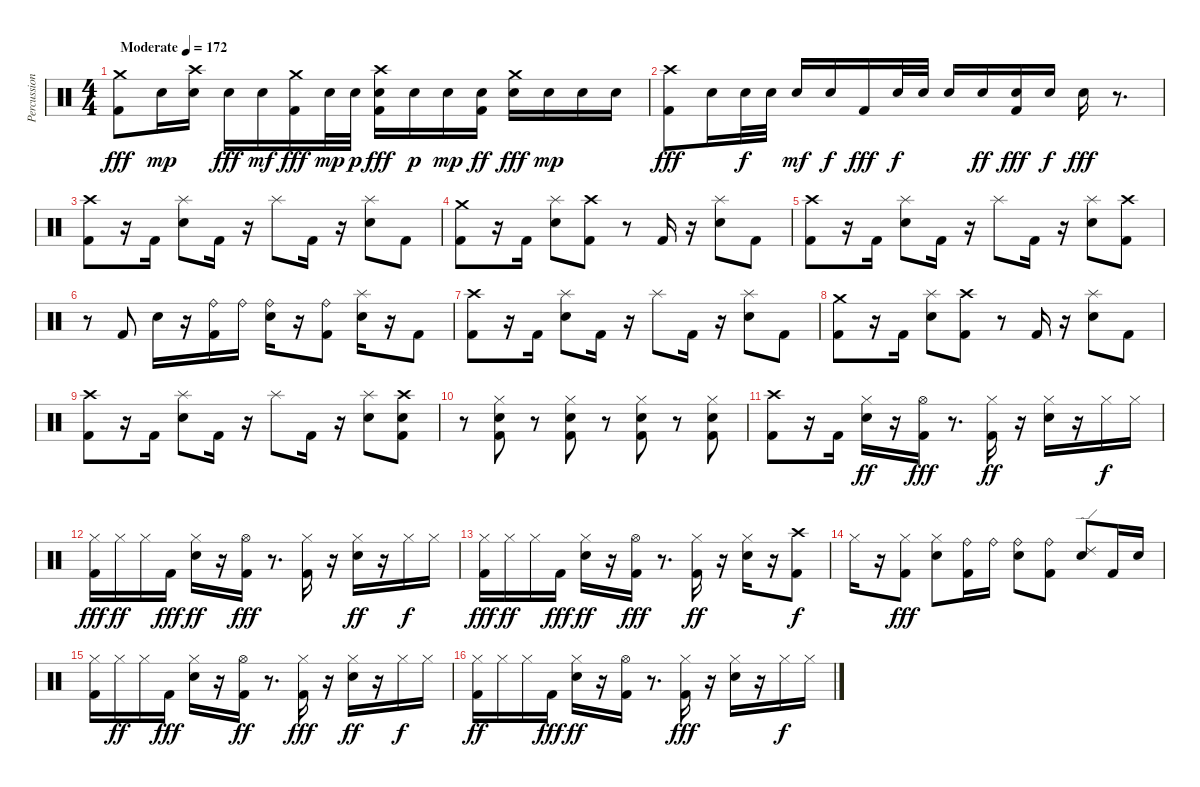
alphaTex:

\track ("Percussion" "Percussion") {instrument percussion}
\staff {score}
\articulation defaults
\ts (4 4)
\tempo (172 "Moderate")
\clef neutral
\ks c
("Crash medium (hit)" "Kick (hit) 2").8{dy fff} "Electric Snare (hit)".16{dy mp} ("Crash high (hit)" "Electric Snare (hit)").16 "Electric Snare (hit)".16{dy fff} "Electric Snare (hit)".16{dy mf} ("Crash medium (hit)" "Kick (hit) 2").16{dy fff} "Electric Snare (hit)".32{dy mp} "Electric Snare (hit)".32{dy p} ("Crash high (hit)" "Electric Snare (hit)" "Kick (hit) 2").16{dy fff} "Electric Snare (hit)".16{dy p} "Electric Snare (hit)".16{dy mp} ("Electric Snare (hit)" "Kick (hit) 2").16{dy ff} ("Crash medium (hit)" "Electric Snare (hit)").16{dy fff} "Electric Snare (hit)".16{dy mp} "Electric Snare (hit)".16 "Electric Snare (hit)".16 |
("Kick (hit) 2" "Crash high (hit)").8{dy fff} "Electric Snare (hit)".16 "Electric Snare (hit)".32{dy f} "Electric Snare (hit)".32 "Electric Snare (hit)".16{dy mf} "Electric Snare (hit)".16{dy f} "Kick (hit) 2".16{dy fff} "Electric Snare (hit)".32{dy f} "Electric Snare (hit)".32 "Electric Snare (hit)".16 "Electric Snare (hit)".16{dy ff} ("Electric Snare (hit)" "Kick (hit) 2").16{dy fff} "Electric Snare (hit)".16{dy f} "Electric Snare (hit)".16{dy fff} r.8{d} |
("Kick (hit) 2" "Crash high (hit)").8 r.16 "Kick (hit) 2".16 ("Snare (hit) 2" "Splash (hit)").8 "Kick (hit) 2".16 r.16 "Splash (hit)".8 "Kick (hit) 2".16 r.16 ("Snare (hit) 2" "Splash (hit)").8 "Kick (hit) 2".8 |
("Crash medium (hit)" "Kick (hit) 2").8 r.16 "Kick (hit) 2".16 ("Snare (hit) 2" "Splash (hit)").8 ("Crash high (hit)" "Kick (hit) 2").8 r.8 "Kick (hit) 2".16 r.16 ("Snare (hit) 2" "Splash (hit)").8 "Kick (hit) 2".8 |
("Crash high (hit)" "Kick (hit) 2").8 r.16 "Kick (hit) 2".16 ("Snare (hit) 2" "Splash (hit)").8 "Kick (hit) 2".16 r.16 "Splash (hit)".8 "Kick (hit) 2".16 r.16 ("Splash (hit)" "Snare (hit) 2").8 ("Crash high (hit)" "Kick (hit) 2").8 |
r.8 "Kick (hit) 2".8 "Snare (hit) 2".16 r.16 ("Ride (bell)" "Kick (hit) 2").16 "Ride (bell)".16 ("Ride (bell)" "Snare (hit) 2").16 r.16 ("Ride (bell)" "Kick (hit) 2").8 ("Splash (hit)" "Snare (hit) 2").16 r.16 "Kick (hit) 2".8 |
("Kick (hit) 2" "Crash high (hit)").8 r.16 "Kick (hit) 2".16 ("Splash (hit)" "Snare (hit) 2").8 "Kick (hit) 2".16 r.16 "Splash (hit)".8 "Kick (hit) 2".16 r.16 ("Splash (hit)" "Snare (hit) 2").8 "Kick (hit) 2".8 |
("Kick (hit) 2" "Crash medium (hit)").8 r.16 "Kick (hit) 2".16 ("Snare (hit) 2" "Splash (hit)").8 ("Crash high (hit)" "Kick (hit) 2").8 r.8 "Kick (hit) 2".16 r.16 ("Snare (hit) 2" "Splash (hit)").8 "Kick (hit) 2".8 |
("Kick (hit) 2" "Crash high (hit)").8 r.16 "Kick (hit) 2".16 ("Snare (hit) 2" "Splash (hit)").8 "Kick (hit) 2".16 r.16 "Splash (hit)".8 "Kick (hit) 2".16 r.16 ("Snare (hit) 2" "Splash (hit)").8 ("Snare (hit) 2" "Kick (hit) 2" "Crash high (hit)").8 |
r.8 ("Hi-Hat (closed)" "Snare (hit) 2" "Kick (hit) 2").8 r.8 ("Kick (hit) 2" "Snare (hit) 2" "Hi-Hat (closed)").8 r.8 ("Hi-Hat (closed)" "Snare (hit) 2" "Kick (hit) 2").8 r.8 ("Hi-Hat (closed)" "Snare (hit) 2" "Kick (hit) 2").8 |
("Kick (hit) 2" "Crash high (hit)").8 r.16 "Kick (hit) 2".16 ("Snare (hit) 2" "Hi-Hat (closed)").16{dy ff} r.16 ("Hi-Hat (open)" "Kick (hit) 2").16{dy fff} r.8{d} ("Kick (hit) 2" "Hi-Hat (closed)").16{dy ff} r.16 ("Snare (hit) 2" "Hi-Hat (closed)").16 r.16 "Hi-Hat (closed)".16{dy f} "Hi-Hat (closed)".16 |
("Hi-Hat (closed)" "Kick (hit) 2").16{dy fff} "Hi-Hat (closed)".16{dy ff} "Hi-Hat (closed)".16 "Kick (hit) 2".16{dy fff} ("Snare (hit) 2" "Hi-Hat (closed)").16{dy ff} r.16 ("Hi-Hat (open)" "Kick (hit) 2").16{dy fff} r.8{d} ("Hi-Hat (closed)" "Kick (hit) 2").16 r.16 ("Snare (hit) 2" "Hi-Hat (closed)").16{dy ff} r.16 "Hi-Hat (closed)".16{dy f} "Hi-Hat (closed)".16 |
("Hi-Hat (closed)" "Kick (hit) 2").16{dy fff} "Hi-Hat (closed)".16{dy ff} "Hi-Hat (closed)".16 "Kick (hit) 2".16{dy fff} ("Snare (hit) 2" "Hi-Hat (closed)").16{dy ff} r.16 ("Hi-Hat (open)" "Kick (hit) 2").16{dy fff} r.8{d} ("Kick (hit) 2" "Hi-Hat (closed)").16{dy ff} r.16 ("Snare (hit) 2" "Hi-Hat (closed)").16 r.16 ("Crash high (hit)" "Kick (hit) 2").8{dy f} |
"Hi-Hat (closed)".16 r.16 ("Kick (hit) 2" "Hi-Hat (closed)").8{dy fff} ("Snare (hit) 2" "Hi-Hat (closed)").8 ("Ride (bell)" "Kick (hit) 2").16 "Ride (bell)".16 ("Ride (bell)" "Snare (hit) 2").8 ("Ride (bell)" "Kick (hit) 2").8 ("Ride (edge) 2" "Snare (hit) 2").8 "Kick (hit) 2".16 "Snare (hit) 2".16 |
("Hi-Hat (closed)" "Kick (hit) 2").16 "Hi-Hat (closed)".16{dy ff} "Hi-Hat (closed)".16 "Kick (hit) 2".16{dy fff} ("Hi-Hat (closed)" "Snare (hit) 2").16 r.16 ("Kick (hit) 2" "Hi-Hat (open)").16{dy ff} r.8{d} ("Hi-Hat (closed)" "Kick (hit) 2").16{dy fff} r.16 ("Snare (hit) 2" "Hi-Hat (closed)").16{dy ff} r.16 "Hi-Hat (closed)".16{dy f} "Hi-Hat (closed)".16 |
("Kick (hit) 2" "Hi-Hat (closed)").16{dy ff} "Hi-Hat (closed)".16 "Hi-Hat (closed)".16 "Kick (hit) 2".16{dy fff} ("Snare (hit) 2" "Hi-Hat (closed)").16{dy ff} r.16 ("Kick (hit) 2" "Hi-Hat (open)").16 r.8{d} ("Hi-Hat (closed)" "Kick (hit) 2").16{dy fff} r.16 ("Hi-Hat (closed)" "Snare (hit) 2").16 r.16 "Hi-Hat (closed)".16{dy f} "Hi-Hat (closed)".16
